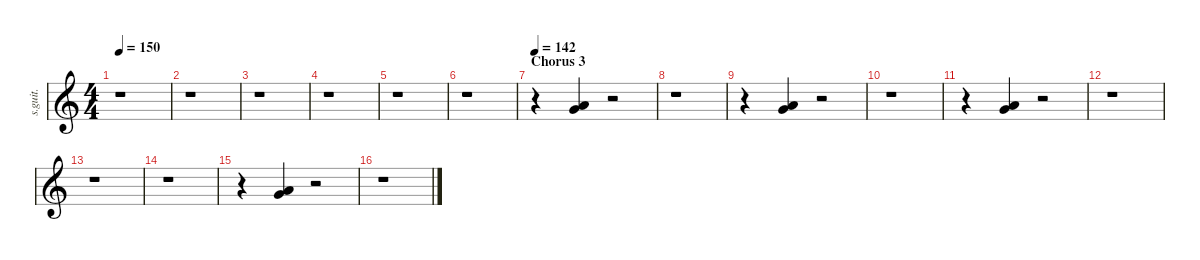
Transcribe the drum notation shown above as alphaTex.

\defaultSystemsLayout 4
\hideDynamics
\bracketExtendMode nobrackets
\track ("Chris Fehn" "s.guit.") {instrument percussion}
\staff {score}
\articulation defaults
\ts (4 4)
\tempo 150
\clef g2
\ks c
r.1{dy f} |
r.1 |
r.1 |
r.1 |
r.1 |
r.1 |
\section ("" "Chorus 3")
\tempo 142
r.4 ("Very Low Tom (hit)" "Low Floor Tom (hit)").4 r.2 |
r.1 |
r.4 ("Very Low Tom (hit)" "Low Floor Tom (hit)").4 r.2 |
r.1 |
r.4 ("Very Low Tom (hit)" "Low Floor Tom (hit)").4 r.2 |
r.1 |
r.1 |
r.1 |
r.4 ("Very Low Tom (hit)" "Low Floor Tom (hit)").4 r.2 |
r.1
